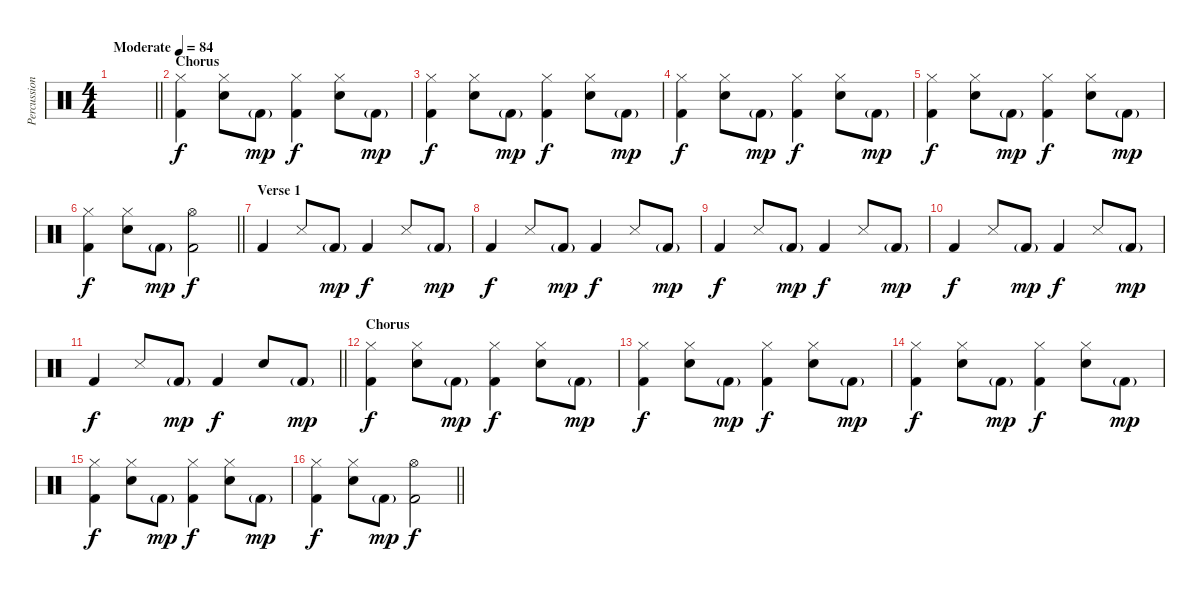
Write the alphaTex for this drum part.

\track ("Percussion" "Percussion") {instrument percussion}
\staff {score}
\articulation defaults
\ts (4 4)
\tempo (84 "Moderate")
\clef neutral
\barLineRight lightlight
\ks c
|
\section ("" "Chorus")
("Hi-Hat (closed)" "Kick (hit) 2").4 ("Hi-Hat (closed)" "Snare (hit) 2").8 "Kick (hit) 2"{g}.8{dy mp} ("Hi-Hat (closed)" "Kick (hit) 2").4{dy f} ("Hi-Hat (closed)" "Snare (hit) 2").8 "Kick (hit) 2"{g}.8{dy mp} |
("Hi-Hat (closed)" "Kick (hit) 2").4{dy f} ("Hi-Hat (closed)" "Snare (hit) 2").8 "Kick (hit) 2"{g}.8{dy mp} ("Hi-Hat (closed)" "Kick (hit) 2").4{dy f} ("Hi-Hat (closed)" "Snare (hit) 2").8 "Kick (hit) 2"{g}.8{dy mp} |
("Hi-Hat (closed)" "Kick (hit) 2").4{dy f} ("Hi-Hat (closed)" "Snare (hit) 2").8 "Kick (hit) 2"{g}.8{dy mp} ("Hi-Hat (closed)" "Kick (hit) 2").4{dy f} ("Hi-Hat (closed)" "Snare (hit) 2").8 "Kick (hit) 2"{g}.8{dy mp} |
("Hi-Hat (closed)" "Kick (hit) 2").4{dy f} ("Hi-Hat (closed)" "Snare (hit) 2").8 "Kick (hit) 2"{g}.8{dy mp} ("Hi-Hat (closed)" "Kick (hit) 2").4{dy f} ("Hi-Hat (closed)" "Snare (hit) 2").8 "Kick (hit) 2"{g}.8{dy mp} |
\barLineRight lightlight
("Hi-Hat (closed)" "Kick (hit) 2").4{dy f} ("Hi-Hat (closed)" "Snare (hit) 2").8 "Kick (hit) 2"{g}.8{dy mp} ("Hi-Hat (open)" "Kick (hit) 2").2{dy f} |
\section ("" "Verse 1")
"Kick (hit) 2".4 "Snare (side stick) 3".8 "Kick (hit) 2"{g}.8{dy mp} "Kick (hit) 2".4{dy f} "Snare (side stick) 3".8 "Kick (hit) 2"{g}.8{dy mp} |
"Kick (hit) 2".4{dy f} "Snare (side stick) 3".8 "Kick (hit) 2"{g}.8{dy mp} "Kick (hit) 2".4{dy f} "Snare (side stick) 3".8 "Kick (hit) 2"{g}.8{dy mp} |
"Kick (hit) 2".4{dy f} "Snare (side stick) 3".8 "Kick (hit) 2"{g}.8{dy mp} "Kick (hit) 2".4{dy f} "Snare (side stick) 3".8 "Kick (hit) 2"{g}.8{dy mp} |
"Kick (hit) 2".4{dy f} "Snare (side stick) 3".8 "Kick (hit) 2"{g}.8{dy mp} "Kick (hit) 2".4{dy f} "Snare (side stick) 3".8 "Kick (hit) 2"{g}.8{dy mp} |
\barLineRight lightlight "Kick (hit) 2".4{dy f} "Snare (side stick) 3".8 "Kick (hit) 2"{g}.8{dy mp} "Kick (hit) 2".4{dy f} "Snare (hit) 2".8 "Kick (hit) 2"{g}.8{dy mp}
|
\section ("" "Chorus")
("Hi-Hat (closed)" "Kick (hit) 2").4{dy f} ("Hi-Hat (closed)" "Snare (hit) 2").8 "Kick (hit) 2"{g}.8{dy mp} ("Hi-Hat (closed)" "Kick (hit) 2").4{dy f} ("Hi-Hat (closed)" "Snare (hit) 2").8 "Kick (hit) 2"{g}.8{dy mp} |
("Hi-Hat (closed)" "Kick (hit) 2").4{dy f} ("Hi-Hat (closed)" "Snare (hit) 2").8 "Kick (hit) 2"{g}.8{dy mp} ("Hi-Hat (closed)" "Kick (hit) 2").4{dy f} ("Hi-Hat (closed)" "Snare (hit) 2").8 "Kick (hit) 2"{g}.8{dy mp} |
("Hi-Hat (closed)" "Kick (hit) 2").4{dy f} ("Hi-Hat (closed)" "Snare (hit) 2").8 "Kick (hit) 2"{g}.8{dy mp} ("Hi-Hat (closed)" "Kick (hit) 2").4{dy f} ("Hi-Hat (closed)" "Snare (hit) 2").8 "Kick (hit) 2"{g}.8{dy mp} |
("Hi-Hat (closed)" "Kick (hit) 2").4{dy f} ("Hi-Hat (closed)" "Snare (hit) 2").8 "Kick (hit) 2"{g}.8{dy mp} ("Hi-Hat (closed)" "Kick (hit) 2").4{dy f} ("Hi-Hat (closed)" "Snare (hit) 2").8 "Kick (hit) 2"{g}.8{dy mp} |
\barLineRight lightlight
("Hi-Hat (closed)" "Kick (hit) 2").4{dy f} ("Hi-Hat (closed)" "Snare (hit) 2").8 "Kick (hit) 2"{g}.8{dy mp} ("Hi-Hat (open)" "Kick (hit) 2").2{dy f}
